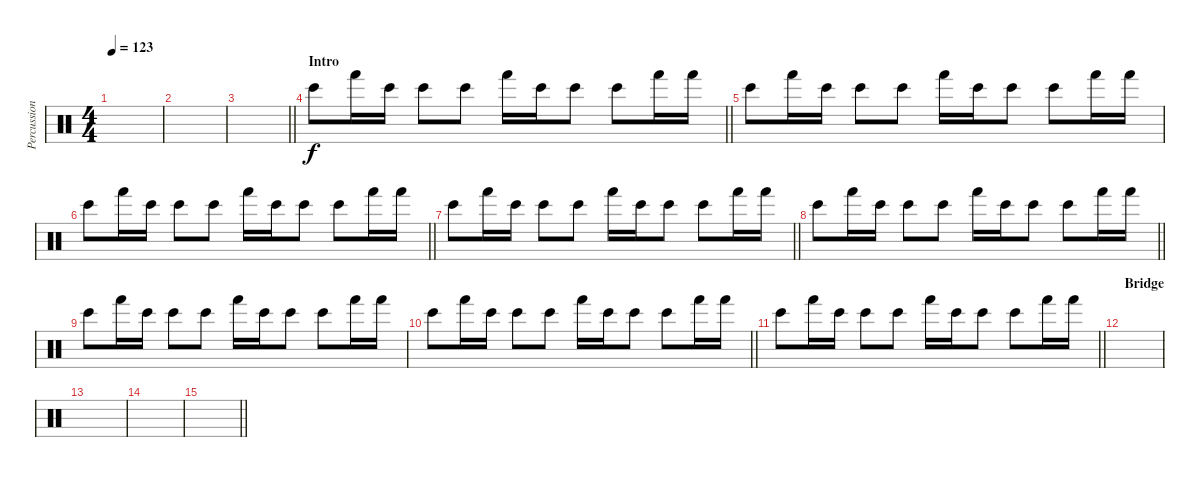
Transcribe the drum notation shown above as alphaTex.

\track ("Percussion (Mauro Refosco)" "Percussion") {instrument percussion}
\staff {score}
\articulation defaults
\ts (4 4)
\tempo 123
\clef neutral
\ks c
|
|
\barLineRight lightlight
|
\section ("" "Intro")
\barLineRight lightlight "Bongo High (hit)".8 "Hand (hit)".16 "Bongo High (hit)".16 "Bongo High (hit)".8 "Bongo High (hit)".8 "Hand (hit)".16 "Bongo High (hit)".16 "Bongo High (hit)".8 "Bongo High (hit)".8 "Hand (hit)".16 "Hand (hit)".16
|
"Bongo High (hit)".8 "Hand (hit)".16 "Bongo High (hit)".16 "Bongo High (hit)".8 "Bongo High (hit)".8 "Hand (hit)".16 "Bongo High (hit)".16 "Bongo High (hit)".8 "Bongo High (hit)".8 "Hand (hit)".16 "Hand (hit)".16 |
\barLineRight lightlight "Bongo High (hit)".8 "Hand (hit)".16 "Bongo High (hit)".16 "Bongo High (hit)".8 "Bongo High (hit)".8 "Hand (hit)".16 "Bongo High (hit)".16 "Bongo High (hit)".8 "Bongo High (hit)".8 "Hand (hit)".16 "Hand (hit)".16
|
\barLineRight lightlight "Bongo High (hit)".8 "Hand (hit)".16 "Bongo High (hit)".16 "Bongo High (hit)".8 "Bongo High (hit)".8 "Hand (hit)".16 "Bongo High (hit)".16 "Bongo High (hit)".8 "Bongo High (hit)".8 "Hand (hit)".16 "Hand (hit)".16
|
\barLineRight lightlight "Bongo High (hit)".8 "Hand (hit)".16 "Bongo High (hit)".16 "Bongo High (hit)".8 "Bongo High (hit)".8 "Hand (hit)".16 "Bongo High (hit)".16 "Bongo High (hit)".8 "Bongo High (hit)".8 "Hand (hit)".16 "Hand (hit)".16
|
"Bongo High (hit)".8 "Hand (hit)".16 "Bongo High (hit)".16 "Bongo High (hit)".8 "Bongo High (hit)".8 "Hand (hit)".16 "Bongo High (hit)".16 "Bongo High (hit)".8 "Bongo High (hit)".8 "Hand (hit)".16 "Hand (hit)".16 |
\barLineRight lightlight "Bongo High (hit)".8 "Hand (hit)".16 "Bongo High (hit)".16 "Bongo High (hit)".8 "Bongo High (hit)".8 "Hand (hit)".16 "Bongo High (hit)".16 "Bongo High (hit)".8 "Bongo High (hit)".8 "Hand (hit)".16 "Hand (hit)".16
|
\barLineRight lightlight "Bongo High (hit)".8 "Hand (hit)".16 "Bongo High (hit)".16 "Bongo High (hit)".8 "Bongo High (hit)".8 "Hand (hit)".16 "Bongo High (hit)".16 "Bongo High (hit)".8 "Bongo High (hit)".8 "Hand (hit)".16 "Hand (hit)".16
|
\section ("" "Bridge")
|
|
|
\barLineRight lightlight
